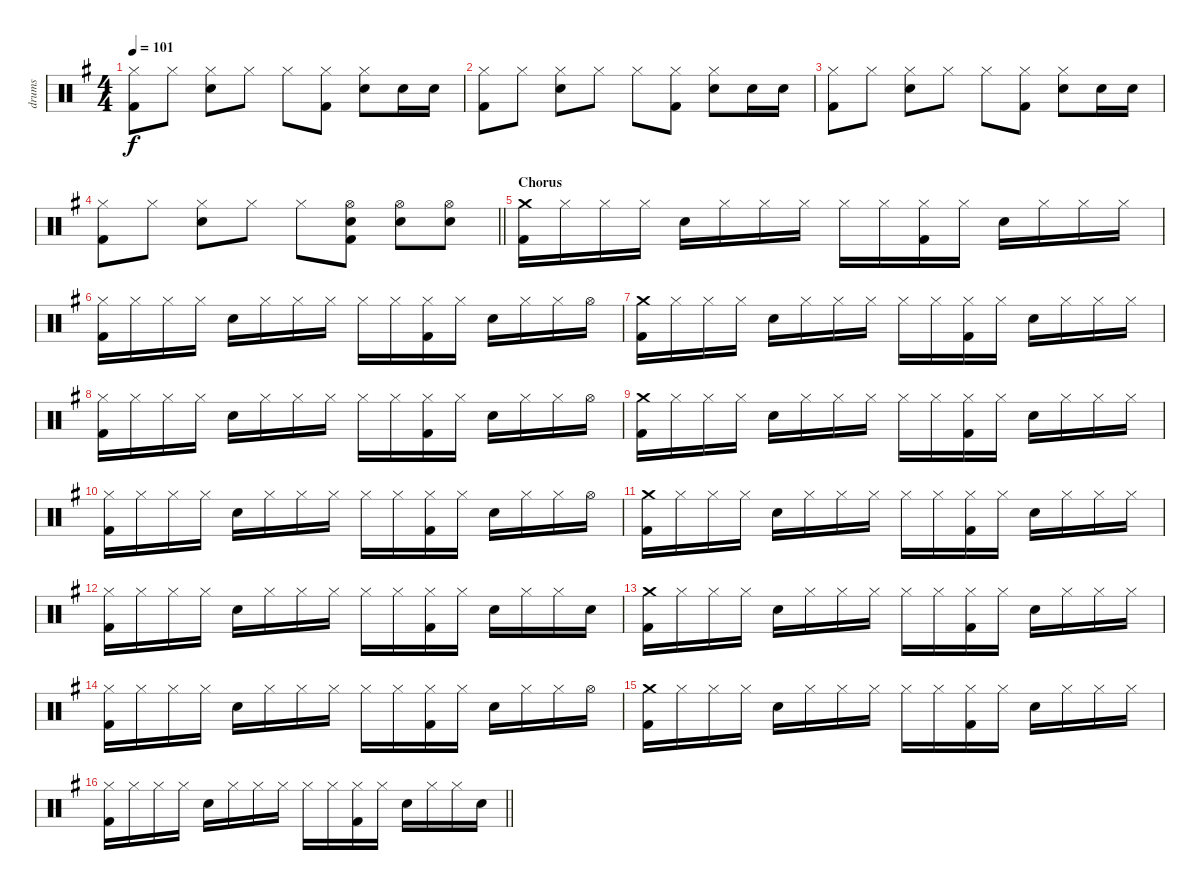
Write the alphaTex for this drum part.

\track ("drums" "drums") {instrument percussion}
\staff {score}
\articulation defaults
\ts (4 4)
\tempo 101
\clef neutral
\ks eminor
("Hi-Hat (closed)" "Kick (hit) 2").8{dy f} "Hi-Hat (closed)".8 ("Hi-Hat (closed)" "Snare (hit) 2").8 "Hi-Hat (closed)".8 "Hi-Hat (closed)".8 ("Hi-Hat (closed)" "Kick (hit) 2").8 ("Hi-Hat (closed)" "Snare (hit) 2").8 "Snare (hit) 2".16 "Snare (hit) 2".16 |
("Hi-Hat (closed)" "Kick (hit) 2").8 "Hi-Hat (closed)".8 ("Hi-Hat (closed)" "Snare (hit) 2").8 "Hi-Hat (closed)".8 "Hi-Hat (closed)".8 ("Hi-Hat (closed)" "Kick (hit) 2").8 ("Hi-Hat (closed)" "Snare (hit) 2").8 "Snare (hit) 2".16 "Snare (hit) 2".16 |
("Hi-Hat (closed)" "Kick (hit) 2").8 "Hi-Hat (closed)".8 ("Hi-Hat (closed)" "Snare (hit) 2").8 "Hi-Hat (closed)".8 "Hi-Hat (closed)".8 ("Hi-Hat (closed)" "Kick (hit) 2").8 ("Hi-Hat (closed)" "Snare (hit) 2").8 "Snare (hit) 2".16 "Snare (hit) 2".16 |
\barLineRight lightlight
("Hi-Hat (closed)" "Kick (hit) 2").8 "Hi-Hat (closed)".8 ("Hi-Hat (closed)" "Snare (hit) 2").8 "Hi-Hat (closed)".8 "Hi-Hat (closed)".8 ("Hi-Hat (open)" "Snare (hit) 2" "Kick (hit) 2").8 ("Hi-Hat (open)" "Snare (hit) 2").8 ("Hi-Hat (open)" "Snare (hit) 2").8 |
\section ("" "Chorus")
("Crash medium (hit)" "Kick (hit) 2").16 "Hi-Hat (closed)".16 "Hi-Hat (closed)".16 "Hi-Hat (closed)".16 "Snare (hit) 2".16 "Hi-Hat (closed)".16 "Hi-Hat (closed)".16 "Hi-Hat (closed)".16 "Hi-Hat (closed)".16 "Hi-Hat (closed)".16 ("Hi-Hat (closed)" "Kick (hit) 2").16 "Hi-Hat (closed)".16 "Snare (hit) 2".16 "Hi-Hat (closed)".16 "Hi-Hat (closed)".16 "Hi-Hat (closed)".16 |
("Hi-Hat (closed)" "Kick (hit) 2").16 "Hi-Hat (closed)".16 "Hi-Hat (closed)".16 "Hi-Hat (closed)".16 "Snare (hit) 2".16 "Hi-Hat (closed)".16 "Hi-Hat (closed)".16 "Hi-Hat (closed)".16 "Hi-Hat (closed)".16 "Hi-Hat (closed)".16 ("Hi-Hat (closed)" "Kick (hit) 2").16 "Hi-Hat (closed)".16 "Snare (hit) 2".16 "Hi-Hat (closed)".16 "Hi-Hat (closed)".16 "Hi-Hat (open)".16 |
("Crash medium (hit)" "Kick (hit) 2").16 "Hi-Hat (closed)".16 "Hi-Hat (closed)".16 "Hi-Hat (closed)".16 "Snare (hit) 2".16 "Hi-Hat (closed)".16 "Hi-Hat (closed)".16 "Hi-Hat (closed)".16 "Hi-Hat (closed)".16 "Hi-Hat (closed)".16 ("Hi-Hat (closed)" "Kick (hit) 2").16 "Hi-Hat (closed)".16 "Snare (hit) 2".16 "Hi-Hat (closed)".16 "Hi-Hat (closed)".16 "Hi-Hat (closed)".16 |
("Hi-Hat (closed)" "Kick (hit) 2").16 "Hi-Hat (closed)".16 "Hi-Hat (closed)".16 "Hi-Hat (closed)".16 "Snare (hit) 2".16 "Hi-Hat (closed)".16 "Hi-Hat (closed)".16 "Hi-Hat (closed)".16 "Hi-Hat (closed)".16 "Hi-Hat (closed)".16 ("Hi-Hat (closed)" "Kick (hit) 2").16 "Hi-Hat (closed)".16 "Snare (hit) 2".16 "Hi-Hat (closed)".16 "Hi-Hat (closed)".16 "Hi-Hat (open)".16 |
("Crash medium (hit)" "Kick (hit) 2").16 "Hi-Hat (closed)".16 "Hi-Hat (closed)".16 "Hi-Hat (closed)".16 "Snare (hit) 2".16 "Hi-Hat (closed)".16 "Hi-Hat (closed)".16 "Hi-Hat (closed)".16 "Hi-Hat (closed)".16 "Hi-Hat (closed)".16 ("Hi-Hat (closed)" "Kick (hit) 2").16 "Hi-Hat (closed)".16 "Snare (hit) 2".16 "Hi-Hat (closed)".16 "Hi-Hat (closed)".16 "Hi-Hat (closed)".16 |
("Hi-Hat (closed)" "Kick (hit) 2").16 "Hi-Hat (closed)".16 "Hi-Hat (closed)".16 "Hi-Hat (closed)".16 "Snare (hit) 2".16 "Hi-Hat (closed)".16 "Hi-Hat (closed)".16 "Hi-Hat (closed)".16 "Hi-Hat (closed)".16 "Hi-Hat (closed)".16 ("Hi-Hat (closed)" "Kick (hit) 2").16 "Hi-Hat (closed)".16 "Snare (hit) 2".16 "Hi-Hat (closed)".16 "Hi-Hat (closed)".16 "Hi-Hat (open)".16 |
("Crash medium (hit)" "Kick (hit) 2").16 "Hi-Hat (closed)".16 "Hi-Hat (closed)".16 "Hi-Hat (closed)".16 "Snare (hit) 2".16 "Hi-Hat (closed)".16 "Hi-Hat (closed)".16 "Hi-Hat (closed)".16 "Hi-Hat (closed)".16 "Hi-Hat (closed)".16 ("Hi-Hat (closed)" "Kick (hit) 2").16 "Hi-Hat (closed)".16 "Snare (hit) 2".16 "Hi-Hat (closed)".16 "Hi-Hat (closed)".16 "Hi-Hat (closed)".16 |
("Hi-Hat (closed)" "Kick (hit) 2").16 "Hi-Hat (closed)".16 "Hi-Hat (closed)".16 "Hi-Hat (closed)".16 "Snare (hit) 2".16 "Hi-Hat (closed)".16 "Hi-Hat (closed)".16 "Hi-Hat (closed)".16 "Hi-Hat (closed)".16 "Hi-Hat (closed)".16 ("Hi-Hat (closed)" "Kick (hit) 2").16 "Hi-Hat (closed)".16 "Snare (hit) 2".16 "Hi-Hat (closed)".16 "Hi-Hat (closed)".16 "Snare (hit) 2".16 |
("Crash medium (hit)" "Kick (hit) 2").16 "Hi-Hat (closed)".16 "Hi-Hat (closed)".16 "Hi-Hat (closed)".16 "Snare (hit) 2".16 "Hi-Hat (closed)".16 "Hi-Hat (closed)".16 "Hi-Hat (closed)".16 "Hi-Hat (closed)".16 "Hi-Hat (closed)".16 ("Hi-Hat (closed)" "Kick (hit) 2").16 "Hi-Hat (closed)".16 "Snare (hit) 2".16 "Hi-Hat (closed)".16 "Hi-Hat (closed)".16 "Hi-Hat (closed)".16 |
("Hi-Hat (closed)" "Kick (hit) 2").16 "Hi-Hat (closed)".16 "Hi-Hat (closed)".16 "Hi-Hat (closed)".16 "Snare (hit) 2".16 "Hi-Hat (closed)".16 "Hi-Hat (closed)".16 "Hi-Hat (closed)".16 "Hi-Hat (closed)".16 "Hi-Hat (closed)".16 ("Hi-Hat (closed)" "Kick (hit) 2").16 "Hi-Hat (closed)".16 "Snare (hit) 2".16 "Hi-Hat (closed)".16 "Hi-Hat (closed)".16 "Hi-Hat (open)".16 |
("Crash medium (hit)" "Kick (hit) 2").16 "Hi-Hat (closed)".16 "Hi-Hat (closed)".16 "Hi-Hat (closed)".16 "Snare (hit) 2".16 "Hi-Hat (closed)".16 "Hi-Hat (closed)".16 "Hi-Hat (closed)".16 "Hi-Hat (closed)".16 "Hi-Hat (closed)".16 ("Hi-Hat (closed)" "Kick (hit) 2").16 "Hi-Hat (closed)".16 "Snare (hit) 2".16 "Hi-Hat (closed)".16 "Hi-Hat (closed)".16 "Hi-Hat (closed)".16 |
\barLineRight lightlight
("Hi-Hat (closed)" "Kick (hit) 2").16 "Hi-Hat (closed)".16 "Hi-Hat (closed)".16 "Hi-Hat (closed)".16 "Snare (hit) 2".16 "Hi-Hat (closed)".16 "Hi-Hat (closed)".16 "Hi-Hat (closed)".16 "Hi-Hat (closed)".16 "Hi-Hat (closed)".16 ("Hi-Hat (closed)" "Kick (hit) 2").16 "Hi-Hat (closed)".16 "Snare (hit) 2".16 "Hi-Hat (closed)".16 "Hi-Hat (closed)".16 "Snare (hit) 2".16
